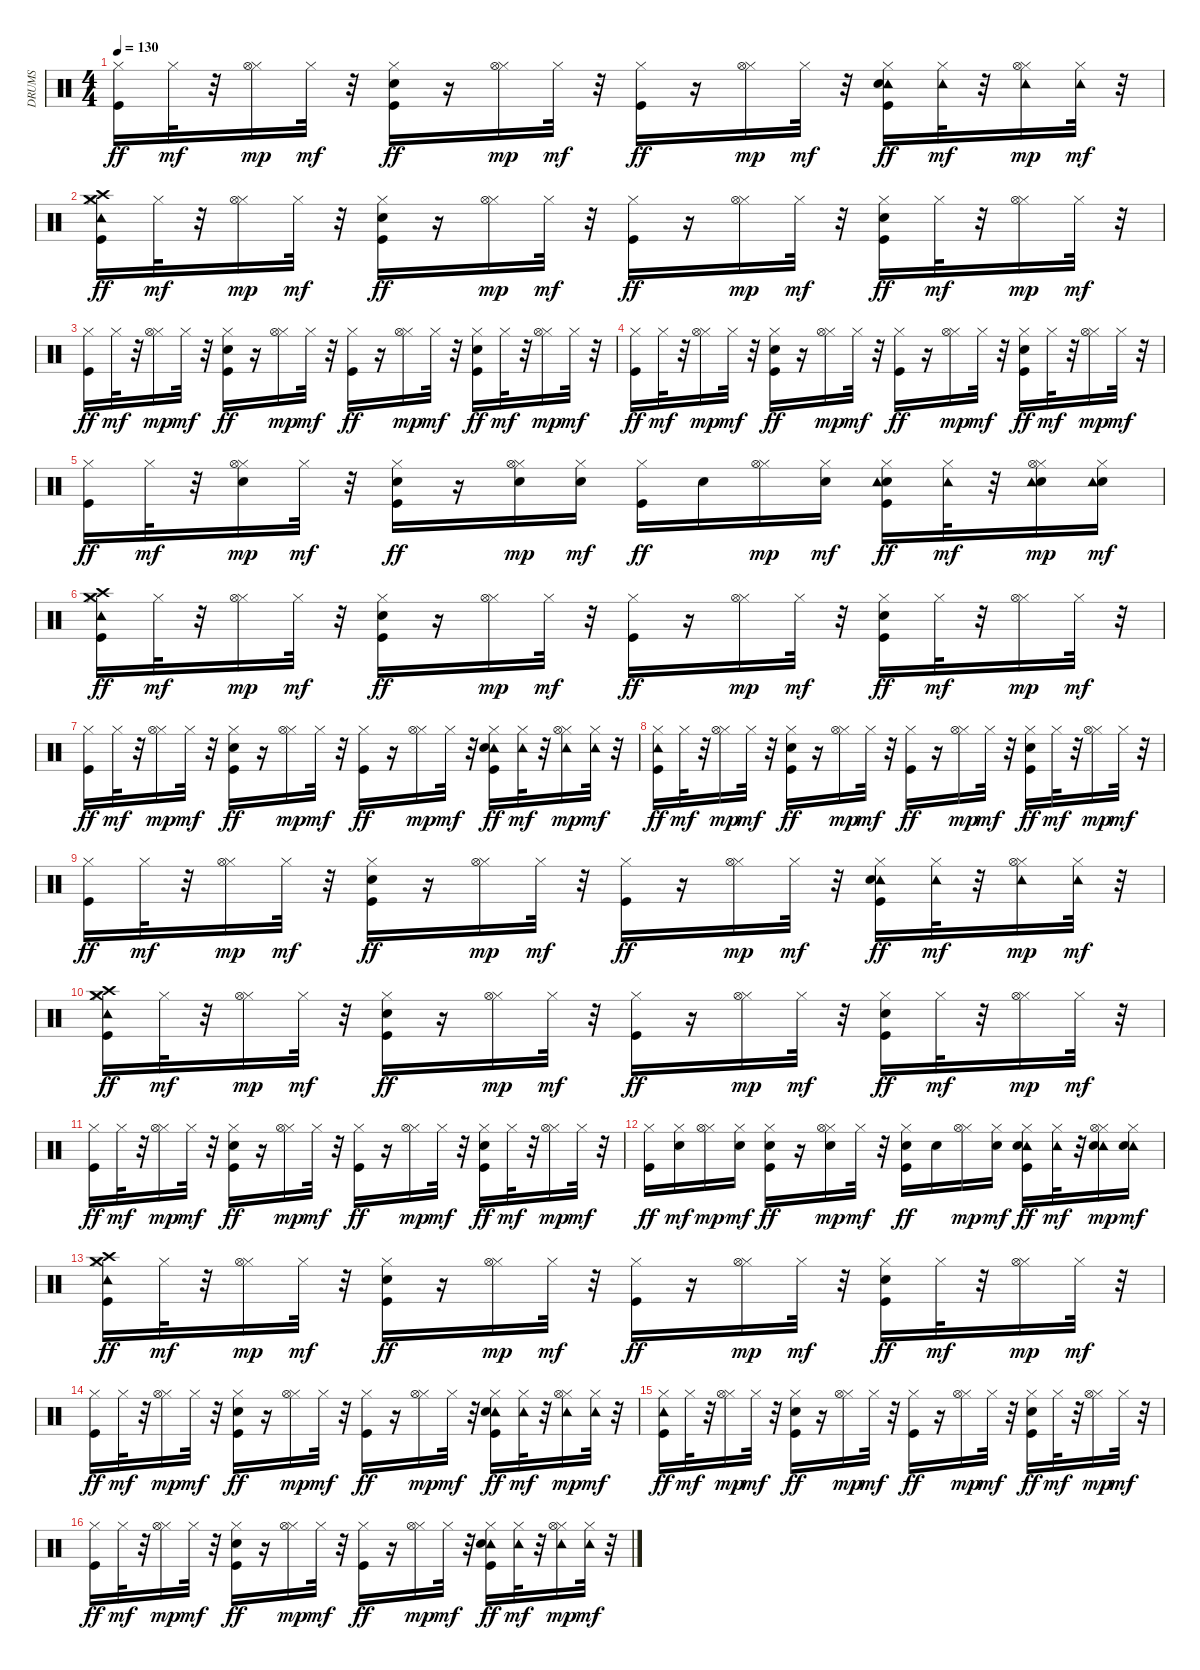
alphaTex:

\track ("DRUMS" "DRUMS") {instrument percussion}
\staff {score}
\articulation defaults
\ts (4 4)
\tempo 130
\clef neutral
\ks c
("Hi-Hat (closed)" "Kick (hit)").16{dy ff} "Hi-Hat (closed)".32{dy mf} r.32 ("Hi-Hat (closed)" "Hi-Hat (open)").16{dy mp} "Hi-Hat (closed)".32{dy mf} r.32 ("Hi-Hat (closed)" "Electric Snare (hit)" "Kick (hit)").16{dy ff} r.16 ("Hi-Hat (closed)" "Hi-Hat (open)").16{dy mp} "Hi-Hat (closed)".32{dy mf} r.32 ("Hi-Hat (closed)" "Kick (hit)").16{dy ff} r.16 ("Hi-Hat (closed)" "Hi-Hat (open)").16{dy mp} "Hi-Hat (closed)".32{dy mf} r.32 ("Hi-Hat (closed)" "Tambourine (hit)" "Electric Snare (hit)" "Kick (hit)").16{dy ff} ("Hi-Hat (closed)" "Tambourine (hit)").32{dy mf} r.32 ("Hi-Hat (closed)" "Tambourine (hit)" "Hi-Hat (open)").16{dy mp} ("Hi-Hat (closed)" "Tambourine (hit)").32{dy mf} r.32 |
("Hi-Hat (closed)" "Tambourine (hit)" "Crash high (hit)" "Crash medium (hit)" "Kick (hit)").16{dy ff} "Hi-Hat (closed)".32{dy mf} r.32 ("Hi-Hat (closed)" "Hi-Hat (open)").16{dy mp} "Hi-Hat (closed)".32{dy mf} r.32 ("Hi-Hat (closed)" "Electric Snare (hit)" "Kick (hit)").16{dy ff} r.16 ("Hi-Hat (closed)" "Hi-Hat (open)").16{dy mp} "Hi-Hat (closed)".32{dy mf} r.32 ("Hi-Hat (closed)" "Kick (hit)").16{dy ff} r.16 ("Hi-Hat (closed)" "Hi-Hat (open)").16{dy mp} "Hi-Hat (closed)".32{dy mf} r.32 ("Hi-Hat (closed)" "Electric Snare (hit)" "Kick (hit)").16{dy ff} "Hi-Hat (closed)".32{dy mf} r.32 ("Hi-Hat (closed)" "Hi-Hat (open)").16{dy mp} "Hi-Hat (closed)".32{dy mf} r.32 |
("Hi-Hat (closed)" "Kick (hit)").16{dy ff} "Hi-Hat (closed)".32{dy mf} r.32 ("Hi-Hat (closed)" "Hi-Hat (open)").16{dy mp} "Hi-Hat (closed)".32{dy mf} r.32 ("Hi-Hat (closed)" "Electric Snare (hit)" "Kick (hit)").16{dy ff} r.16 ("Hi-Hat (closed)" "Hi-Hat (open)").16{dy mp} "Hi-Hat (closed)".32{dy mf} r.32 ("Hi-Hat (closed)" "Kick (hit)").16{dy ff} r.16 ("Hi-Hat (closed)" "Hi-Hat (open)").16{dy mp} "Hi-Hat (closed)".32{dy mf} r.32 ("Hi-Hat (closed)" "Electric Snare (hit)" "Kick (hit)").16{dy ff} "Hi-Hat (closed)".32{dy mf} r.32 ("Hi-Hat (closed)" "Hi-Hat (open)").16{dy mp} "Hi-Hat (closed)".32{dy mf} r.32 |
("Hi-Hat (closed)" "Kick (hit)").16{dy ff} "Hi-Hat (closed)".32{dy mf} r.32 ("Hi-Hat (closed)" "Hi-Hat (open)").16{dy mp} "Hi-Hat (closed)".32{dy mf} r.32 ("Hi-Hat (closed)" "Electric Snare (hit)" "Kick (hit)").16{dy ff} r.16 ("Hi-Hat (closed)" "Hi-Hat (open)").16{dy mp} "Hi-Hat (closed)".32{dy mf} r.32 ("Hi-Hat (closed)" "Kick (hit)").16{dy ff} r.16 ("Hi-Hat (closed)" "Hi-Hat (open)").16{dy mp} "Hi-Hat (closed)".32{dy mf} r.32 ("Hi-Hat (closed)" "Electric Snare (hit)" "Kick (hit)").16{dy ff} "Hi-Hat (closed)".32{dy mf} r.32 ("Hi-Hat (closed)" "Hi-Hat (open)").16{dy mp} "Hi-Hat (closed)".32{dy mf} r.32 |
("Hi-Hat (closed)" "Kick (hit)").16{dy ff} "Hi-Hat (closed)".32{dy mf} r.32 ("Electric Snare (hit)" "Hi-Hat (closed)" "Hi-Hat (open)").16{dy mp} "Hi-Hat (closed)".32{dy mf} r.32 ("Electric Snare (hit)" "Hi-Hat (closed)" "Kick (hit)").16{dy ff} r.16 ("Electric Snare (hit)" "Hi-Hat (closed)" "Hi-Hat (open)").16{dy mp} ("Electric Snare (hit)" "Hi-Hat (closed)").16{dy mf} ("Hi-Hat (closed)" "Kick (hit)").16{dy ff} "Electric Snare (hit)".16 ("Hi-Hat (closed)" "Hi-Hat (open)").16{dy mp} ("Electric Snare (hit)" "Hi-Hat (closed)").16{dy mf} ("Electric Snare (hit)" "Hi-Hat (closed)" "Tambourine (hit)" "Kick (hit)").16{dy ff} ("Hi-Hat (closed)" "Tambourine (hit)").32{dy mf} r.32 ("Electric Snare (hit)" "Hi-Hat (closed)" "Tambourine (hit)" "Hi-Hat (open)").16{dy mp} ("Electric Snare (hit)" "Hi-Hat (closed)" "Tambourine (hit)").16{dy mf} |
("Hi-Hat (closed)" "Tambourine (hit)" "Crash high (hit)" "Crash medium (hit)" "Kick (hit)").16{dy ff} "Hi-Hat (closed)".32{dy mf} r.32 ("Hi-Hat (closed)" "Hi-Hat (open)").16{dy mp} "Hi-Hat (closed)".32{dy mf} r.32 ("Hi-Hat (closed)" "Electric Snare (hit)" "Kick (hit)").16{dy ff} r.16 ("Hi-Hat (closed)" "Hi-Hat (open)").16{dy mp} "Hi-Hat (closed)".32{dy mf} r.32 ("Hi-Hat (closed)" "Kick (hit)").16{dy ff} r.16 ("Hi-Hat (closed)" "Hi-Hat (open)").16{dy mp} "Hi-Hat (closed)".32{dy mf} r.32 ("Hi-Hat (closed)" "Electric Snare (hit)" "Kick (hit)").16{dy ff} "Hi-Hat (closed)".32{dy mf} r.32 ("Hi-Hat (closed)" "Hi-Hat (open)").16{dy mp} "Hi-Hat (closed)".32{dy mf} r.32 |
("Hi-Hat (closed)" "Kick (hit)").16{dy ff} "Hi-Hat (closed)".32{dy mf} r.32 ("Hi-Hat (closed)" "Hi-Hat (open)").16{dy mp} "Hi-Hat (closed)".32{dy mf} r.32 ("Hi-Hat (closed)" "Electric Snare (hit)" "Kick (hit)").16{dy ff} r.16 ("Hi-Hat (closed)" "Hi-Hat (open)").16{dy mp} "Hi-Hat (closed)".32{dy mf} r.32 ("Hi-Hat (closed)" "Kick (hit)").16{dy ff} r.16 ("Hi-Hat (closed)" "Hi-Hat (open)").16{dy mp} "Hi-Hat (closed)".32{dy mf} r.32 ("Hi-Hat (closed)" "Tambourine (hit)" "Electric Snare (hit)" "Kick (hit)").16{dy ff} ("Hi-Hat (closed)" "Tambourine (hit)").32{dy mf} r.32 ("Hi-Hat (closed)" "Tambourine (hit)" "Hi-Hat (open)").16{dy mp} ("Hi-Hat (closed)" "Tambourine (hit)").32{dy mf} r.32 |
("Hi-Hat (closed)" "Tambourine (hit)" "Kick (hit)").16{dy ff} "Hi-Hat (closed)".32{dy mf} r.32 ("Hi-Hat (closed)" "Hi-Hat (open)").16{dy mp} "Hi-Hat (closed)".32{dy mf} r.32 ("Hi-Hat (closed)" "Electric Snare (hit)" "Kick (hit)").16{dy ff} r.16 ("Hi-Hat (closed)" "Hi-Hat (open)").16{dy mp} "Hi-Hat (closed)".32{dy mf} r.32 ("Hi-Hat (closed)" "Kick (hit)").16{dy ff} r.16 ("Hi-Hat (closed)" "Hi-Hat (open)").16{dy mp} "Hi-Hat (closed)".32{dy mf} r.32 ("Hi-Hat (closed)" "Electric Snare (hit)" "Kick (hit)").16{dy ff} "Hi-Hat (closed)".32{dy mf} r.32 ("Hi-Hat (closed)" "Hi-Hat (open)").16{dy mp} "Hi-Hat (closed)".32{dy mf} r.32 |
("Hi-Hat (closed)" "Kick (hit)").16{dy ff} "Hi-Hat (closed)".32{dy mf} r.32 ("Hi-Hat (closed)" "Hi-Hat (open)").16{dy mp} "Hi-Hat (closed)".32{dy mf} r.32 ("Hi-Hat (closed)" "Electric Snare (hit)" "Kick (hit)").16{dy ff} r.16 ("Hi-Hat (closed)" "Hi-Hat (open)").16{dy mp} "Hi-Hat (closed)".32{dy mf} r.32 ("Hi-Hat (closed)" "Kick (hit)").16{dy ff} r.16 ("Hi-Hat (closed)" "Hi-Hat (open)").16{dy mp} "Hi-Hat (closed)".32{dy mf} r.32 ("Hi-Hat (closed)" "Tambourine (hit)" "Electric Snare (hit)" "Kick (hit)").16{dy ff} ("Hi-Hat (closed)" "Tambourine (hit)").32{dy mf} r.32 ("Hi-Hat (closed)" "Tambourine (hit)" "Hi-Hat (open)").16{dy mp} ("Hi-Hat (closed)" "Tambourine (hit)").32{dy mf} r.32 |
("Hi-Hat (closed)" "Tambourine (hit)" "Crash high (hit)" "Crash medium (hit)" "Kick (hit)").16{dy ff} "Hi-Hat (closed)".32{dy mf} r.32 ("Hi-Hat (closed)" "Hi-Hat (open)").16{dy mp} "Hi-Hat (closed)".32{dy mf} r.32 ("Hi-Hat (closed)" "Electric Snare (hit)" "Kick (hit)").16{dy ff} r.16 ("Hi-Hat (closed)" "Hi-Hat (open)").16{dy mp} "Hi-Hat (closed)".32{dy mf} r.32 ("Hi-Hat (closed)" "Kick (hit)").16{dy ff} r.16 ("Hi-Hat (closed)" "Hi-Hat (open)").16{dy mp} "Hi-Hat (closed)".32{dy mf} r.32 ("Hi-Hat (closed)" "Electric Snare (hit)" "Kick (hit)").16{dy ff} "Hi-Hat (closed)".32{dy mf} r.32 ("Hi-Hat (closed)" "Hi-Hat (open)").16{dy mp} "Hi-Hat (closed)".32{dy mf} r.32 |
("Hi-Hat (closed)" "Kick (hit)").16{dy ff} "Hi-Hat (closed)".32{dy mf} r.32 ("Hi-Hat (closed)" "Hi-Hat (open)").16{dy mp} "Hi-Hat (closed)".32{dy mf} r.32 ("Hi-Hat (closed)" "Electric Snare (hit)" "Kick (hit)").16{dy ff} r.16 ("Hi-Hat (closed)" "Hi-Hat (open)").16{dy mp} "Hi-Hat (closed)".32{dy mf} r.32 ("Hi-Hat (closed)" "Kick (hit)").16{dy ff} r.16 ("Hi-Hat (closed)" "Hi-Hat (open)").16{dy mp} "Hi-Hat (closed)".32{dy mf} r.32 ("Hi-Hat (closed)" "Electric Snare (hit)" "Kick (hit)").16{dy ff} "Hi-Hat (closed)".32{dy mf} r.32 ("Hi-Hat (closed)" "Hi-Hat (open)").16{dy mp} "Hi-Hat (closed)".32{dy mf} r.32 |
("Hi-Hat (closed)" "Kick (hit)").16{dy ff} ("Electric Snare (hit)" "Hi-Hat (closed)").16{dy mf} ("Hi-Hat (closed)" "Hi-Hat (open)").16{dy mp} ("Electric Snare (hit)" "Hi-Hat (closed)").16{dy mf} ("Electric Snare (hit)" "Hi-Hat (closed)" "Kick (hit)").16{dy ff} r.16 ("Electric Snare (hit)" "Hi-Hat (closed)" "Hi-Hat (open)").16{dy mp} "Hi-Hat (closed)".32{dy mf} r.32 ("Electric Snare (hit)" "Hi-Hat (closed)" "Kick (hit)").16{dy ff} "Electric Snare (hit)".16 ("Hi-Hat (closed)" "Hi-Hat (open)").16{dy mp} ("Electric Snare (hit)" "Hi-Hat (closed)").16{dy mf} ("Tambourine (hit)" "Electric Snare (hit)" "Hi-Hat (closed)" "Kick (hit)").16{dy ff} ("Tambourine (hit)" "Hi-Hat (closed)").32{dy mf} r.32 ("Tambourine (hit)" "Electric Snare (hit)" "Hi-Hat (closed)" "Hi-Hat (open)").16{dy mp} ("Tambourine (hit)" "Electric Snare (hit)" "Hi-Hat (closed)").16{dy mf} |
("Tambourine (hit)" "Crash high (hit)" "Crash medium (hit)" "Hi-Hat (closed)" "Kick (hit)").16{dy ff} "Hi-Hat (closed)".32{dy mf} r.32 ("Hi-Hat (closed)" "Hi-Hat (open)").16{dy mp} "Hi-Hat (closed)".32{dy mf} r.32 ("Electric Snare (hit)" "Hi-Hat (closed)" "Kick (hit)").16{dy ff} r.16 ("Hi-Hat (closed)" "Hi-Hat (open)").16{dy mp} "Hi-Hat (closed)".32{dy mf} r.32 ("Hi-Hat (closed)" "Kick (hit)").16{dy ff} r.16 ("Hi-Hat (closed)" "Hi-Hat (open)").16{dy mp} "Hi-Hat (closed)".32{dy mf} r.32 ("Electric Snare (hit)" "Hi-Hat (closed)" "Kick (hit)").16{dy ff} "Hi-Hat (closed)".32{dy mf} r.32 ("Hi-Hat (closed)" "Hi-Hat (open)").16{dy mp} "Hi-Hat (closed)".32{dy mf} r.32 |
("Hi-Hat (closed)" "Kick (hit)").16{dy ff} "Hi-Hat (closed)".32{dy mf} r.32 ("Hi-Hat (closed)" "Hi-Hat (open)").16{dy mp} "Hi-Hat (closed)".32{dy mf} r.32 ("Electric Snare (hit)" "Hi-Hat (closed)" "Kick (hit)").16{dy ff} r.16 ("Hi-Hat (closed)" "Hi-Hat (open)").16{dy mp} "Hi-Hat (closed)".32{dy mf} r.32 ("Hi-Hat (closed)" "Kick (hit)").16{dy ff} r.16 ("Hi-Hat (closed)" "Hi-Hat (open)").16{dy mp} "Hi-Hat (closed)".32{dy mf} r.32 ("Tambourine (hit)" "Electric Snare (hit)" "Hi-Hat (closed)" "Kick (hit)").16{dy ff} ("Tambourine (hit)" "Hi-Hat (closed)").32{dy mf} r.32 ("Tambourine (hit)" "Hi-Hat (closed)" "Hi-Hat (open)").16{dy mp} ("Tambourine (hit)" "Hi-Hat (closed)").32{dy mf} r.32 |
("Tambourine (hit)" "Hi-Hat (closed)" "Kick (hit)").16{dy ff} "Hi-Hat (closed)".32{dy mf} r.32 ("Hi-Hat (closed)" "Hi-Hat (open)").16{dy mp} "Hi-Hat (closed)".32{dy mf} r.32 ("Electric Snare (hit)" "Hi-Hat (closed)" "Kick (hit)").16{dy ff} r.16 ("Hi-Hat (closed)" "Hi-Hat (open)").16{dy mp} "Hi-Hat (closed)".32{dy mf} r.32 ("Hi-Hat (closed)" "Kick (hit)").16{dy ff} r.16 ("Hi-Hat (closed)" "Hi-Hat (open)").16{dy mp} "Hi-Hat (closed)".32{dy mf} r.32 ("Electric Snare (hit)" "Hi-Hat (closed)" "Kick (hit)").16{dy ff} "Hi-Hat (closed)".32{dy mf} r.32 ("Hi-Hat (closed)" "Hi-Hat (open)").16{dy mp} "Hi-Hat (closed)".32{dy mf} r.32 |
("Hi-Hat (closed)" "Kick (hit)").16{dy ff} "Hi-Hat (closed)".32{dy mf} r.32 ("Hi-Hat (closed)" "Hi-Hat (open)").16{dy mp} "Hi-Hat (closed)".32{dy mf} r.32 ("Electric Snare (hit)" "Hi-Hat (closed)" "Kick (hit)").16{dy ff} r.16 ("Hi-Hat (closed)" "Hi-Hat (open)").16{dy mp} "Hi-Hat (closed)".32{dy mf} r.32 ("Hi-Hat (closed)" "Kick (hit)").16{dy ff} r.16 ("Hi-Hat (closed)" "Hi-Hat (open)").16{dy mp} "Hi-Hat (closed)".32{dy mf} r.32 ("Tambourine (hit)" "Electric Snare (hit)" "Hi-Hat (closed)" "Kick (hit)").16{dy ff} ("Tambourine (hit)" "Hi-Hat (closed)").32{dy mf} r.32 ("Tambourine (hit)" "Hi-Hat (closed)" "Hi-Hat (open)").16{dy mp} ("Tambourine (hit)" "Hi-Hat (closed)").32{dy mf} r.32
